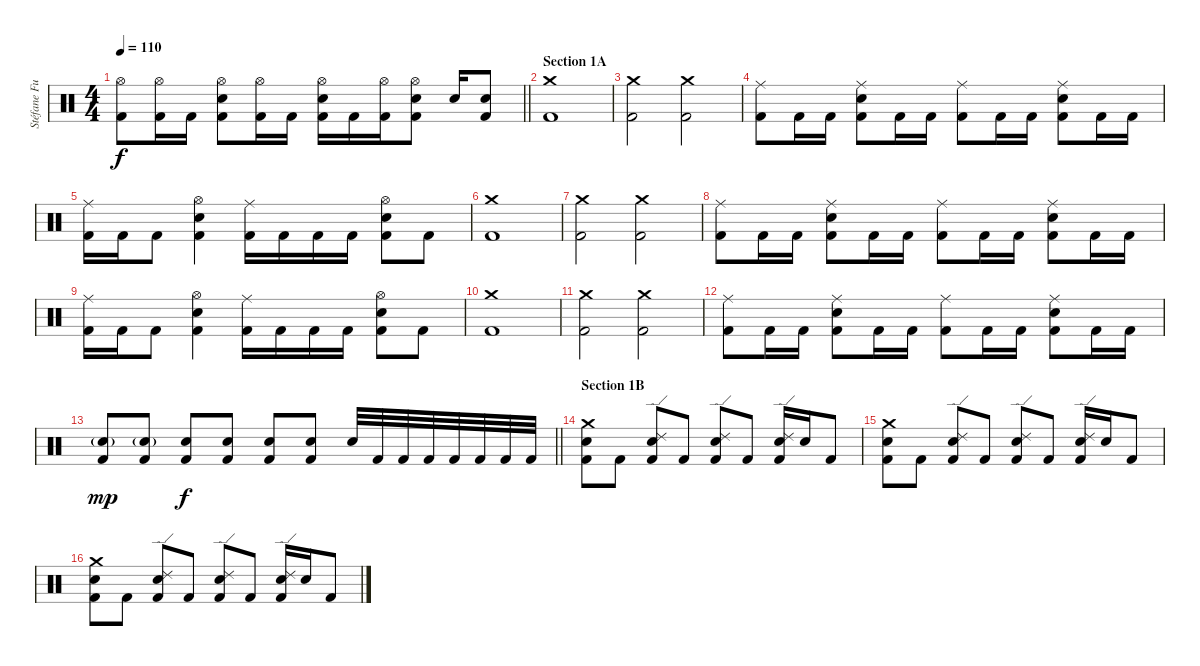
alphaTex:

\track ("Stéfane Funebre" "Stéfane Fu") {instrument percussion}
\staff {score}
\articulation defaults
\ts (4 4)
\tempo 110
\clef neutral
\barLineRight lightlight
\ks c
("Hi-Hat (open)" "Kick (hit) 2").8{dy f} ("Hi-Hat (open)" "Kick (hit) 2").16 "Kick (hit) 2".16 ("Hi-Hat (open)" "Snare (hit) 2" "Kick (hit) 2").8 ("Hi-Hat (open)" "Kick (hit) 2").16 "Kick (hit) 2".16 ("Hi-Hat (open)" "Snare (hit) 2" "Kick (hit) 2").16 "Kick (hit) 2".16 ("Hi-Hat (open)" "Kick (hit) 2").16 ("Hi-Hat (open)" "Snare (hit) 2" "Kick (hit) 2").8 "Snare (hit) 2".16 ("Snare (hit) 2" "Kick (hit) 2").8 |
\section ("" "Section 1A")
("Crash medium (hit)" "Kick (hit) 2").1 |
("Crash medium (hit)" "Kick (hit) 2").2 ("Crash medium (hit)" "Kick (hit) 2").2 |
("Ride (middle)" "Kick (hit) 2").8 "Kick (hit) 2".16 "Kick (hit) 2".16 ("Ride (middle)" "Snare (hit) 2" "Kick (hit) 2").8 "Kick (hit) 2".16 "Kick (hit) 2".16 ("Ride (middle)" "Kick (hit) 2").8 "Kick (hit) 2".16 "Kick (hit) 2".16 ("Ride (middle)" "Snare (hit) 2" "Kick (hit) 2").8 "Kick (hit) 2".16 "Kick (hit) 2".16 |
("Ride (middle)" "Kick (hit) 2").16 "Kick (hit) 2".16 "Kick (hit) 2".8 ("Hi-Hat (open)" "Snare (hit) 2" "Kick (hit) 2").4 ("Ride (middle)" "Kick (hit) 2").16 "Kick (hit) 2".16 "Kick (hit) 2".16 "Kick (hit) 2".16 ("Hi-Hat (open)" "Snare (hit) 2" "Kick (hit) 2").8 "Kick (hit) 2".8 |
("Crash medium (hit)" "Kick (hit) 2").1 |
("Crash medium (hit)" "Kick (hit) 2").2 ("Crash medium (hit)" "Kick (hit) 2").2 |
("Ride (middle)" "Kick (hit) 2").8 "Kick (hit) 2".16 "Kick (hit) 2".16 ("Ride (middle)" "Snare (hit) 2" "Kick (hit) 2").8 "Kick (hit) 2".16 "Kick (hit) 2".16 ("Ride (middle)" "Kick (hit) 2").8 "Kick (hit) 2".16 "Kick (hit) 2".16 ("Ride (middle)" "Snare (hit) 2" "Kick (hit) 2").8 "Kick (hit) 2".16 "Kick (hit) 2".16 |
("Ride (middle)" "Kick (hit) 2").16 "Kick (hit) 2".16 "Kick (hit) 2".8 ("Hi-Hat (open)" "Snare (hit) 2" "Kick (hit) 2").4 ("Ride (middle)" "Kick (hit) 2").16 "Kick (hit) 2".16 "Kick (hit) 2".16 "Kick (hit) 2".16 ("Hi-Hat (open)" "Snare (hit) 2" "Kick (hit) 2").8 "Kick (hit) 2".8 |
("Crash medium (hit)" "Kick (hit) 2").1 |
("Crash medium (hit)" "Kick (hit) 2").2 ("Crash medium (hit)" "Kick (hit) 2").2 |
("Ride (middle)" "Kick (hit) 2").8 "Kick (hit) 2".16 "Kick (hit) 2".16 ("Ride (middle)" "Snare (hit) 2" "Kick (hit) 2").8 "Kick (hit) 2".16 "Kick (hit) 2".16 ("Ride (middle)" "Kick (hit) 2").8 "Kick (hit) 2".16 "Kick (hit) 2".16 ("Ride (middle)" "Snare (hit) 2" "Kick (hit) 2").8 "Kick (hit) 2".16 "Kick (hit) 2".16 |
\barLineRight lightlight
("Snare (hit) 2"{g} "Kick (hit) 2").8{dy mp} ("Snare (hit) 2"{g} "Kick (hit) 2").8 ("Snare (hit) 2" "Kick (hit) 2").8{dy f} ("Snare (hit) 2" "Kick (hit) 2").8 ("Snare (hit) 2" "Kick (hit) 2").8 ("Snare (hit) 2" "Kick (hit) 2").8 "Snare (hit) 2".32 "Kick (hit) 2".32 "Kick (hit) 2".32 "Kick (hit) 2".32 "Kick (hit) 2".32 "Kick (hit) 2".32 "Kick (hit) 2".32 "Kick (hit) 2".32 |
\section ("" "Section 1B")
("Crash medium (hit)" "Snare (hit) 2" "Kick (hit) 2").8 "Kick (hit) 2".8 ("Ride (edge) 2" "Snare (hit) 2" "Kick (hit) 2").8 "Kick (hit) 2".8 ("Ride (edge) 2" "Snare (hit) 2" "Kick (hit) 2").8 "Kick (hit) 2".8 ("Ride (edge) 2" "Snare (hit) 2" "Kick (hit) 2").16 "Snare (hit) 2".16 "Kick (hit) 2".8 |
("Crash medium (hit)" "Snare (hit) 2" "Kick (hit) 2").8 "Kick (hit) 2".8 ("Ride (edge) 2" "Snare (hit) 2" "Kick (hit) 2").8 "Kick (hit) 2".8 ("Ride (edge) 2" "Snare (hit) 2" "Kick (hit) 2").8 "Kick (hit) 2".8 ("Ride (edge) 2" "Snare (hit) 2" "Kick (hit) 2").16 "Snare (hit) 2".16 "Kick (hit) 2".8 |
("Crash medium (hit)" "Snare (hit) 2" "Kick (hit) 2").8 "Kick (hit) 2".8 ("Ride (edge) 2" "Snare (hit) 2" "Kick (hit) 2").8 "Kick (hit) 2".8 ("Ride (edge) 2" "Snare (hit) 2" "Kick (hit) 2").8 "Kick (hit) 2".8 ("Ride (edge) 2" "Snare (hit) 2" "Kick (hit) 2").16 "Snare (hit) 2".16 "Kick (hit) 2".8
